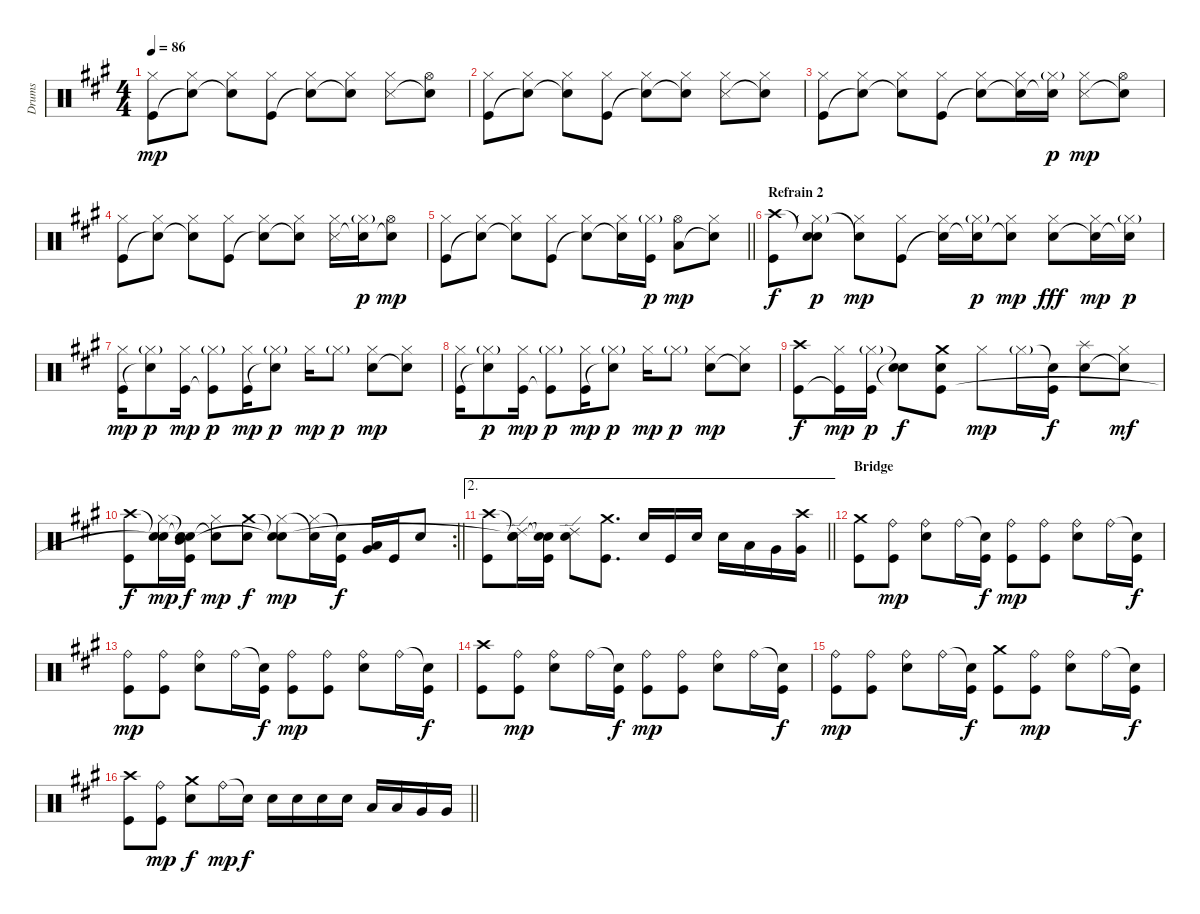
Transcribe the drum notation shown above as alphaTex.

\track ("Drums" "Drums") {instrument percussion}
\staff {score}
\articulation defaults
\ts (4 4)
\tempo 86
\clef neutral
\ks a
("Hi-Hat (closed)" "Kick (hit)").8{dy mp} ("Hi-Hat (closed)" "Snare (hit)"{t}).8 ("Hi-Hat (closed)" "Snare (hit)"{t}).8 ("Hi-Hat (closed)" "Kick (hit)").8 ("Hi-Hat (closed)" "Snare (hit)"{t}).8 ("Hi-Hat (closed)" "Snare (hit)"{t}).8 ("Hi-Hat (closed)" "Snare (side stick) 3").8 ("Hi-Hat (open)" "Snare (hit)"{t}).8 |
("Hi-Hat (closed)" "Kick (hit)").8 ("Hi-Hat (closed)" "Snare (hit)"{t}).8 ("Hi-Hat (closed)" "Snare (hit)"{t}).8 ("Hi-Hat (closed)" "Kick (hit)").8 ("Hi-Hat (closed)" "Snare (hit)"{t}).8 ("Hi-Hat (closed)" "Snare (hit)"{t}).8 ("Hi-Hat (closed)" "Snare (side stick) 3").8 ("Hi-Hat (closed)" "Snare (hit)"{t}).8 |
("Hi-Hat (closed)" "Kick (hit)").8 ("Hi-Hat (closed)" "Snare (hit)"{t}).8 ("Hi-Hat (closed)" "Snare (hit)"{t}).8 ("Hi-Hat (closed)" "Kick (hit)").8 ("Hi-Hat (closed)" "Snare (hit)"{t}).8 ("Hi-Hat (closed)" "Snare (hit)"{t}).16 ("Hi-Hat (closed)"{g} "Snare (hit)"{t}).16{dy p} ("Hi-Hat (closed)" "Snare (side stick) 3").8{dy mp} ("Hi-Hat (open)" "Snare (hit)"{t}).8 |
("Hi-Hat (closed)" "Kick (hit)").8 ("Hi-Hat (closed)" "Snare (hit)"{t}).8 ("Hi-Hat (closed)" "Snare (hit)"{t}).8 ("Hi-Hat (closed)" "Kick (hit)").8 ("Hi-Hat (closed)" "Snare (hit)"{t}).8 ("Hi-Hat (closed)" "Snare (hit)"{t}).8 ("Hi-Hat (closed)" "Snare (side stick) 3").16 ("Hi-Hat (closed)"{g} "Snare (hit)"{t}).16{dy p} ("Hi-Hat (open)" "Snare (hit)"{t}).8{dy mp} |
\barLineRight lightlight
("Hi-Hat (closed)" "Kick (hit)").8 ("Hi-Hat (closed)" "Snare (hit)"{t}).8 ("Hi-Hat (closed)" "Snare (hit)"{t}).8 ("Hi-Hat (closed)" "Kick (hit)").8 ("Hi-Hat (closed)" "Snare (hit)"{t}).8 ("Hi-Hat (closed)" "Snare (hit)"{t}).16 ("Hi-Hat (closed)"{g} "Kick (hit)").16{dy p} ("Hi-Hat (open)" "Low Tom (hit)").8{dy mp} ("Hi-Hat (closed)" "Snare (hit)"{t}).8 |
\section ("" "Refrain 2")
("Crash high (hit)" "Kick (hit)").8{dy f} ("Snare (hit)"{t} "Hi-Hat (closed)"{g} "Snare (hit)").8{dy p} ("Hi-Hat (closed)" "Snare (hit)"{t}).8{dy mp} ("Hi-Hat (closed)" "Kick (hit)").8 ("Hi-Hat (closed)" "Snare (hit)"{t}).16 ("Hi-Hat (closed)"{g} "Snare (hit)"{t}).16{dy p} ("Hi-Hat (closed)" "Snare (hit)"{t}).8{dy mp} ("Hi-Hat (closed)" "Electric Snare (hit)").8{dy fff} ("Hi-Hat (closed)" "Snare (hit)"{t}).16{dy mp} ("Hi-Hat (closed)"{g} "Snare (hit)"{t}).16{dy p} |
("Hi-Hat (closed)" "Kick (hit)").16{dy mp} ("Hi-Hat (closed)"{g} "Snare (hit)"{t}).8{dy p} ("Hi-Hat (closed)" "Kick (hit)").16{dy mp} ("Hi-Hat (closed)"{g} "Kick (hit)"{t}).8{dy p} ("Hi-Hat (closed)" "Kick (hit)").16{dy mp} ("Hi-Hat (closed)"{g} "Snare (hit)"{t}).8{dy p} "Hi-Hat (closed)".16{dy mp} "Hi-Hat (closed)"{g}.8{dy p} ("Hi-Hat (closed)" "Electric Snare (hit)").8{dy mp} ("Hi-Hat (closed)" "Snare (hit)"{t}).8 |
("Hi-Hat (closed)" "Kick (hit)").16 ("Hi-Hat (closed)"{g} "Snare (hit)"{t}).8{dy p} ("Hi-Hat (closed)" "Kick (hit)").16{dy mp} ("Hi-Hat (closed)"{g} "Kick (hit)"{t}).8{dy p} ("Hi-Hat (closed)" "Kick (hit)").16{dy mp} ("Hi-Hat (closed)"{g} "Snare (hit)"{t}).8{dy p} "Hi-Hat (closed)".16{dy mp} "Hi-Hat (closed)"{g}.8{dy p} ("Hi-Hat (closed)" "Electric Snare (hit)").8{dy mp} ("Hi-Hat (closed)" "Snare (hit)"{t}).8 |
("Crash high (hit)" "Kick (hit)").8{dy f} ("Hi-Hat (closed)" "Kick (hit)"{t}).16{dy mp} ("Hi-Hat (closed)"{g} "Kick (hit)").16{dy p} ("Snare (hit)"{t} "Snare (hit)"{t}).8{dy f} ("Crash medium (hit)" "Electric Snare (hit)" "Kick (hit)").8 "Hi-Hat (closed)".8{dy mp} "Hi-Hat (closed)"{g}.16 ("Snare (hit)"{t} "Kick (hit)").16{dy f} ("Splash (hit)" "Electric Snare (hit)").8 ("Hi-Hat (closed)" "Snare (hit)"{t}).8{dy mf} |
\rc 2
\barLineRight lightlight
("Crash high (hit)" "Kick (hit)").8{dy f} ("Snare (hit)"{t} "Hi-Hat (closed)" "Snare (hit)"{t}).16{dy mp} ("Snare (hit)"{t} "Snare (hit)"{t} "Mid Tom (hit)" "Kick (hit)").16{dy f} ("Hi-Hat (closed)" "Snare (hit)"{t}).8{dy mp} ("Crash medium (hit)" "Electric Snare (hit)").8{dy f} ("Snare (hit)"{t} "Hi-Hat (closed)" "Snare (hit)"{t}).8{dy mp} ("Hi-Hat (closed)" "Snare (hit)"{t}).16 ("Snare (hit)"{t} "Kick (hit)").16{dy f} ("Very Low Tom (hit)" "Low Tom (hit)").16 "Kick (hit)".16 "Electric Snare (hit)".8 |
\ae 2
\barLineRight lightlight
("Crash high (hit)" "Kick (hit)").8 ("Snare (hit)"{t} "Ride (edge) 2" "Snare (hit)"{t}).16 ("Snare (hit)"{t} "Snare (hit)"{t} "Kick (hit)").16 ("Ride (edge) 2" "Electric Snare (hit)").8 ("Crash medium (hit)" "Kick (hit)").8{d} "Electric Snare (hit)".16 "Kick (hit)".16 "Electric Snare (hit)".16 "Electric Snare (hit)".16 "Low Tom (hit)".16 "Very Low Tom (hit)".16 ("Crash high (hit)" "Very Low Tom (hit)").16 |
\section ("" "Bridge")
("Crash medium (hit)" "Kick (hit)").8 ("Ride (bell)" "Kick (hit)").8{dy mp} ("Ride (bell)" "Electric Snare (hit)").8 "Ride (bell)".16 ("Snare (hit)"{t} "Kick (hit)").16{dy f} ("Ride (bell)" "Kick (hit)").8{dy mp} ("Ride (bell)" "Kick (hit)").8 ("Ride (bell)" "Electric Snare (hit)").8 "Ride (bell)".16 ("Snare (hit)"{t} "Kick (hit)").16{dy f} |
("Ride (bell)" "Kick (hit)").8{dy mp} ("Ride (bell)" "Kick (hit)").8 ("Ride (bell)" "Electric Snare (hit)").8 "Ride (bell)".16 ("Snare (hit)"{t} "Kick (hit)").16{dy f} ("Ride (bell)" "Kick (hit)").8{dy mp} ("Ride (bell)" "Kick (hit)").8 ("Ride (bell)" "Electric Snare (hit)").8 "Ride (bell)".16 ("Snare (hit)"{t} "Kick (hit)").16{dy f} |
("Crash high (hit)" "Kick (hit)").8 ("Ride (bell)" "Kick (hit)").8{dy mp} ("Ride (bell)" "Electric Snare (hit)").8 "Ride (bell)".16 ("Snare (hit)"{t} "Kick (hit)").16{dy f} ("Ride (bell)" "Kick (hit)").8{dy mp} ("Ride (bell)" "Kick (hit)").8 ("Ride (bell)" "Electric Snare (hit)").8 "Ride (bell)".16 ("Snare (hit)"{t} "Kick (hit)").16{dy f} |
("Ride (bell)" "Kick (hit)").8{dy mp} ("Ride (bell)" "Kick (hit)").8 ("Ride (bell)" "Electric Snare (hit)").8 "Ride (bell)".16 ("Snare (hit)"{t} "Kick (hit)").16{dy f} ("Crash medium (hit)" "Kick (hit)").8 ("Ride (bell)" "Kick (hit)").8{dy mp} ("Ride (bell)" "Electric Snare (hit)").8 "Ride (bell)".16 ("Snare (hit)"{t} "Kick (hit)").16{dy f} |
\barLineRight lightlight
("Crash high (hit)" "Kick (hit)").8 ("Ride (bell)" "Kick (hit)").8{dy mp} ("Crash medium (hit)" "Electric Snare (hit)").8{dy f} "Ride (bell)".16{dy mp} "Snare (hit)"{t}.16{dy f} "Electric Snare (hit)".16 "Electric Snare (hit)".16 "Electric Snare (hit)".16 "Electric Snare (hit)".16 "Low Tom (hit)".16 "Low Tom (hit)".16 "Very Low Tom (hit)".16 "Very Low Tom (hit)".16
